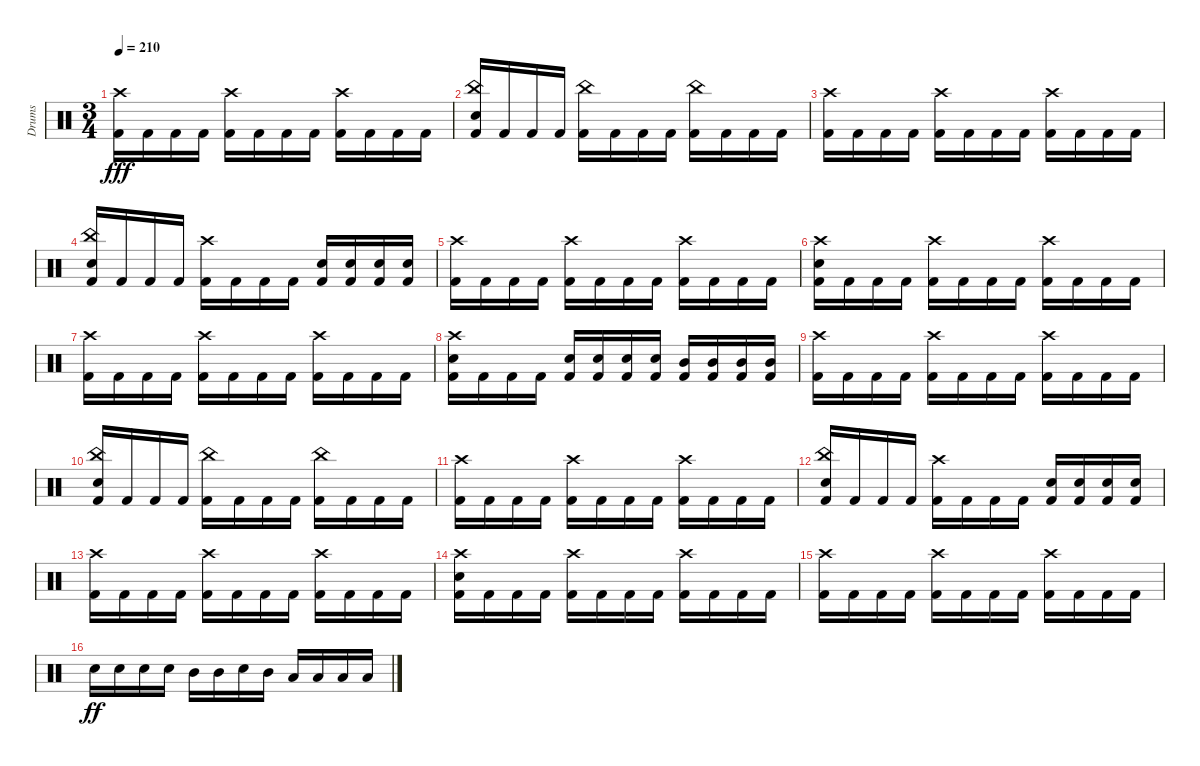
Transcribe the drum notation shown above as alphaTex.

\track ("Drums" "Drums") {instrument percussion}
\staff {score}
\articulation defaults
\ts (3 4)
\tempo 210
\clef neutral
\ks c
("Crash high (hit)" "Kick (hit) 2").16{dy fff} "Kick (hit) 2".16 "Kick (hit) 2".16 "Kick (hit) 2".16 ("Crash high (hit)" "Kick (hit) 2").16 "Kick (hit) 2".16 "Kick (hit) 2".16 "Kick (hit) 2".16 ("Crash high (hit)" "Kick (hit) 2").16 "Kick (hit) 2".16 "Kick (hit) 2".16 "Kick (hit) 2".16 |
("China (hit)" "Snare (hit) 2" "Kick (hit) 2").16 "Kick (hit) 2".16 "Kick (hit) 2".16 "Kick (hit) 2".16 ("China (hit)" "Kick (hit) 2").16 "Kick (hit) 2".16 "Kick (hit) 2".16 "Kick (hit) 2".16 ("China (hit)" "Kick (hit) 2").16 "Kick (hit) 2".16 "Kick (hit) 2".16 "Kick (hit) 2".16 |
("Crash high (hit)" "Kick (hit) 2").16 "Kick (hit) 2".16 "Kick (hit) 2".16 "Kick (hit) 2".16 ("Crash high (hit)" "Kick (hit) 2").16 "Kick (hit) 2".16 "Kick (hit) 2".16 "Kick (hit) 2".16 ("Crash high (hit)" "Kick (hit) 2").16 "Kick (hit) 2".16 "Kick (hit) 2".16 "Kick (hit) 2".16 |
("China (hit)" "Snare (hit) 2" "Kick (hit) 2").16 "Kick (hit) 2".16 "Kick (hit) 2".16 "Kick (hit) 2".16 ("Crash high (hit)" "Kick (hit) 2").16 "Kick (hit) 2".16 "Kick (hit) 2".16 "Kick (hit) 2".16 ("Snare (hit) 2" "Kick (hit) 2").16 ("Snare (hit) 2" "Kick (hit) 2").16 ("Snare (hit) 2" "Kick (hit) 2").16 ("Snare (hit) 2" "Kick (hit) 2").16 |
("Crash high (hit)" "Kick (hit) 2").16 "Kick (hit) 2".16 "Kick (hit) 2".16 "Kick (hit) 2".16 ("Crash high (hit)" "Kick (hit) 2").16 "Kick (hit) 2".16 "Kick (hit) 2".16 "Kick (hit) 2".16 ("Crash high (hit)" "Kick (hit) 2").16 "Kick (hit) 2".16 "Kick (hit) 2".16 "Kick (hit) 2".16 |
("Crash high (hit)" "Snare (hit) 2" "Kick (hit) 2").16 "Kick (hit) 2".16 "Kick (hit) 2".16 "Kick (hit) 2".16 ("Crash high (hit)" "Kick (hit) 2").16 "Kick (hit) 2".16 "Kick (hit) 2".16 "Kick (hit) 2".16 ("Crash high (hit)" "Kick (hit) 2").16 "Kick (hit) 2".16 "Kick (hit) 2".16 "Kick (hit) 2".16 |
("Crash high (hit)" "Kick (hit) 2").16 "Kick (hit) 2".16 "Kick (hit) 2".16 "Kick (hit) 2".16 ("Crash high (hit)" "Kick (hit) 2").16 "Kick (hit) 2".16 "Kick (hit) 2".16 "Kick (hit) 2".16 ("Crash high (hit)" "Kick (hit) 2").16 "Kick (hit) 2".16 "Kick (hit) 2".16 "Kick (hit) 2".16 |
("Crash high (hit)" "Snare (hit) 2" "Kick (hit) 2").16 "Kick (hit) 2".16 "Kick (hit) 2".16 "Kick (hit) 2".16 ("Snare (hit) 2" "Kick (hit) 2").16 ("Snare (hit) 2" "Kick (hit) 2").16 ("Snare (hit) 2" "Kick (hit) 2").16 ("Snare (hit) 2" "Kick (hit) 2").16 ("Mid Tom (hit)" "Kick (hit) 2").16 ("Mid Tom (hit)" "Kick (hit) 2").16 ("Mid Tom (hit)" "Kick (hit) 2").16 ("Mid Tom (hit)" "Kick (hit) 2").16 |
("Crash high (hit)" "Kick (hit) 2").16 "Kick (hit) 2".16 "Kick (hit) 2".16 "Kick (hit) 2".16 ("Crash high (hit)" "Kick (hit) 2").16 "Kick (hit) 2".16 "Kick (hit) 2".16 "Kick (hit) 2".16 ("Crash high (hit)" "Kick (hit) 2").16 "Kick (hit) 2".16 "Kick (hit) 2".16 "Kick (hit) 2".16 |
("China (hit)" "Snare (hit) 2" "Kick (hit) 2").16 "Kick (hit) 2".16 "Kick (hit) 2".16 "Kick (hit) 2".16 ("China (hit)" "Kick (hit) 2").16 "Kick (hit) 2".16 "Kick (hit) 2".16 "Kick (hit) 2".16 ("China (hit)" "Kick (hit) 2").16 "Kick (hit) 2".16 "Kick (hit) 2".16 "Kick (hit) 2".16 |
("Crash high (hit)" "Kick (hit) 2").16 "Kick (hit) 2".16 "Kick (hit) 2".16 "Kick (hit) 2".16 ("Crash high (hit)" "Kick (hit) 2").16 "Kick (hit) 2".16 "Kick (hit) 2".16 "Kick (hit) 2".16 ("Crash high (hit)" "Kick (hit) 2").16 "Kick (hit) 2".16 "Kick (hit) 2".16 "Kick (hit) 2".16 |
("China (hit)" "Snare (hit) 2" "Kick (hit) 2").16 "Kick (hit) 2".16 "Kick (hit) 2".16 "Kick (hit) 2".16 ("Crash high (hit)" "Kick (hit) 2").16 "Kick (hit) 2".16 "Kick (hit) 2".16 "Kick (hit) 2".16 ("Snare (hit) 2" "Kick (hit) 2").16 ("Snare (hit) 2" "Kick (hit) 2").16 ("Snare (hit) 2" "Kick (hit) 2").16 ("Snare (hit) 2" "Kick (hit) 2").16 |
("Crash high (hit)" "Kick (hit) 2").16 "Kick (hit) 2".16 "Kick (hit) 2".16 "Kick (hit) 2".16 ("Crash high (hit)" "Kick (hit) 2").16 "Kick (hit) 2".16 "Kick (hit) 2".16 "Kick (hit) 2".16 ("Crash high (hit)" "Kick (hit) 2").16 "Kick (hit) 2".16 "Kick (hit) 2".16 "Kick (hit) 2".16 |
("Crash high (hit)" "Snare (hit) 2" "Kick (hit) 2").16 "Kick (hit) 2".16 "Kick (hit) 2".16 "Kick (hit) 2".16 ("Crash high (hit)" "Kick (hit) 2").16 "Kick (hit) 2".16 "Kick (hit) 2".16 "Kick (hit) 2".16 ("Crash high (hit)" "Kick (hit) 2").16 "Kick (hit) 2".16 "Kick (hit) 2".16 "Kick (hit) 2".16 |
("Crash high (hit)" "Kick (hit) 2").16 "Kick (hit) 2".16 "Kick (hit) 2".16 "Kick (hit) 2".16 ("Crash high (hit)" "Kick (hit) 2").16 "Kick (hit) 2".16 "Kick (hit) 2".16 "Kick (hit) 2".16 ("Crash high (hit)" "Kick (hit) 2").16 "Kick (hit) 2".16 "Kick (hit) 2".16 "Kick (hit) 2".16 |
"Snare (hit) 2".16{dy ff} "Snare (hit) 2".16 "Snare (hit) 2".16 "Snare (hit) 2".16 "Mid Tom (hit)".16 "Mid Tom (hit)".16 "Snare (hit) 2".16 "Mid Tom (hit)".16 "Low Tom (hit)".16 "Low Tom (hit)".16 "Low Tom (hit)".16 "Low Tom (hit)".16
